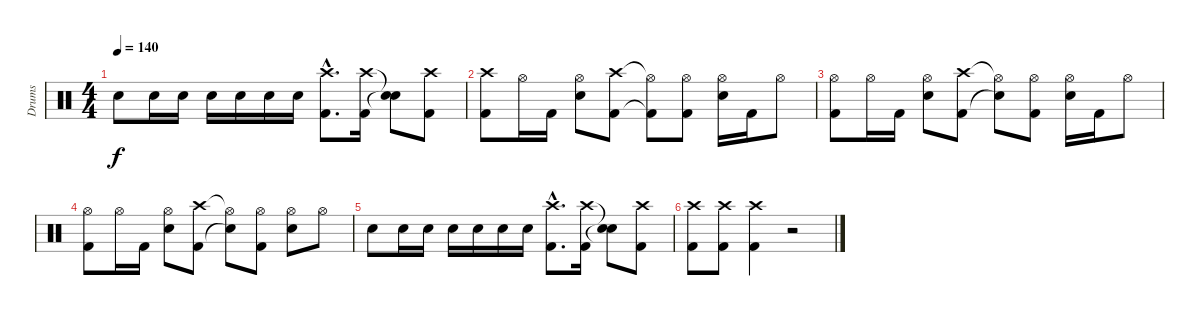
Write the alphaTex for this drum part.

\track ("Drums" "Drums") {instrument percussion}
\staff {score}
\articulation defaults
\ts (4 4)
\tempo 140
\clef neutral
\ks c "Snare (hit) 2".8{dy f} "Snare (hit) 2".16 "Snare (hit) 2".16 "Snare (hit) 2".16 "Snare (hit) 2".16 "Snare (hit) 2".16 "Snare (hit) 2".16
("Crash high (hit)"{hac} "Kick (hit) 2"{hac}).8{d} ("Crash high (hit)" "Kick (hit) 2").16 ("Snare (hit)"{t} "Snare (hit)"{t}).8 ("Crash high (hit)" "Kick (hit) 2").8 |
("Crash high (hit)" "Kick (hit) 2").8 "Hi-Hat (open)".16 "Kick (hit) 2".16 ("Hi-Hat (open)" "Snare (hit) 2").8 ("Crash high (hit)" "Kick (hit) 2").8 ("Hi-Hat (open)"{t} "Kick (hit) 2"{t}).8 ("Hi-Hat (open)" "Kick (hit) 2").8 ("Hi-Hat (open)" "Snare (hit) 2").16 "Kick (hit) 2".16 "Hi-Hat (open)".8 |
("Hi-Hat (open)" "Kick (hit) 2").8 "Hi-Hat (open)".16 "Kick (hit) 2".16 ("Hi-Hat (open)" "Snare (hit) 2").8 ("Crash high (hit)" "Kick (hit) 2").8 ("Hi-Hat (open)"{t} "Snare (hit)"{t}).8 ("Hi-Hat (open)" "Kick (hit) 2").8 ("Hi-Hat (open)" "Snare (hit) 2").16 "Kick (hit) 2".16 "Hi-Hat (open)".8 |
("Hi-Hat (open)" "Kick (hit) 2").8 "Hi-Hat (open)".16 "Kick (hit) 2".16 ("Hi-Hat (open)" "Snare (hit) 2").8 ("Crash high (hit)" "Kick (hit) 2").8 ("Hi-Hat (open)"{t} "Snare (hit)"{t}).8 ("Hi-Hat (open)" "Kick (hit) 2").8 ("Hi-Hat (open)" "Snare (hit) 2").8 "Hi-Hat (open)".8 |
"Snare (hit) 2".8 "Snare (hit) 2".16 "Snare (hit) 2".16 "Snare (hit) 2".16 "Snare (hit) 2".16 "Snare (hit) 2".16 "Snare (hit) 2".16 ("Crash high (hit)"{hac} "Kick (hit) 2"{hac}).8{d} ("Crash high (hit)" "Kick (hit) 2").16 ("Snare (hit)"{t} "Snare (hit)"{t}).8 ("Crash high (hit)" "Kick (hit) 2").8 |
("Crash high (hit)" "Kick (hit) 2").8 ("Crash high (hit)" "Kick (hit) 2").8 ("Crash high (hit)" "Kick (hit) 2").4 r.2
